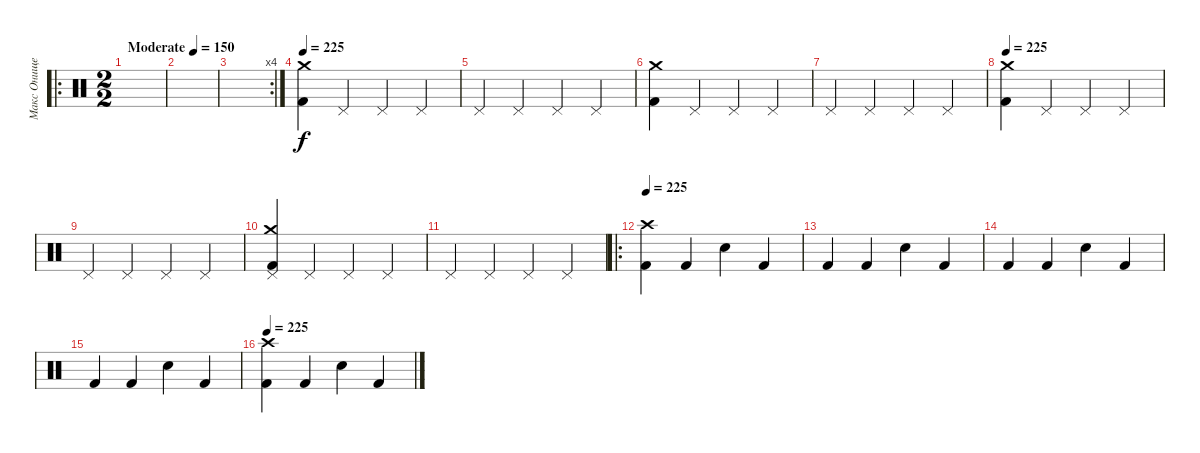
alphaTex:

\track ("Макс Онищенко" "Макс Онище") {instrument percussion}
\staff {score}
\articulation defaults
\ro
\ts (2 2)
\tempo (150 "Moderate")
\clef neutral
\ks c
|
|
\rc 4
|
\tempo 225
("Kick (hit) 2" "Crash medium (hit)").4 "Pedal Hi-Hat (hit)".4 "Pedal Hi-Hat (hit)".4 "Pedal Hi-Hat (hit)".4 |
"Pedal Hi-Hat (hit)".4 "Pedal Hi-Hat (hit)".4 "Pedal Hi-Hat (hit)".4 "Pedal Hi-Hat (hit)".4 |
("Kick (hit) 2" "Crash medium (hit)").4 "Pedal Hi-Hat (hit)".4 "Pedal Hi-Hat (hit)".4 "Pedal Hi-Hat (hit)".4 |
"Pedal Hi-Hat (hit)".4 "Pedal Hi-Hat (hit)".4 "Pedal Hi-Hat (hit)".4 "Pedal Hi-Hat (hit)".4 |
\tempo 225
("Kick (hit) 2" "Crash medium (hit)").4 "Pedal Hi-Hat (hit)".4 "Pedal Hi-Hat (hit)".4 "Pedal Hi-Hat (hit)".4 |
"Pedal Hi-Hat (hit)".4 "Pedal Hi-Hat (hit)".4 "Pedal Hi-Hat (hit)".4 "Pedal Hi-Hat (hit)".4 |
("Kick (hit) 2" "Pedal Hi-Hat (hit)" "Crash medium (hit)").4 "Pedal Hi-Hat (hit)".4 "Pedal Hi-Hat (hit)".4 "Pedal Hi-Hat (hit)".4 |
"Pedal Hi-Hat (hit)".4 "Pedal Hi-Hat (hit)".4 "Pedal Hi-Hat (hit)".4 "Pedal Hi-Hat (hit)".4 |
\ro
\tempo 225
("Kick (hit) 2" "Crash high (hit)").4 "Kick (hit) 2".4 "Snare (hit) 2".4 "Kick (hit) 2".4 |
"Kick (hit) 2".4 "Kick (hit) 2".4 "Snare (hit) 2".4 "Kick (hit) 2".4 |
"Kick (hit) 2".4 "Kick (hit) 2".4 "Snare (hit) 2".4 "Kick (hit) 2".4 |
"Kick (hit) 2".4 "Kick (hit) 2".4 "Snare (hit) 2".4 "Kick (hit) 2".4 |
\tempo 225
("Kick (hit) 2" "Crash high (hit)").4 "Kick (hit) 2".4 "Snare (hit) 2".4 "Kick (hit) 2".4
